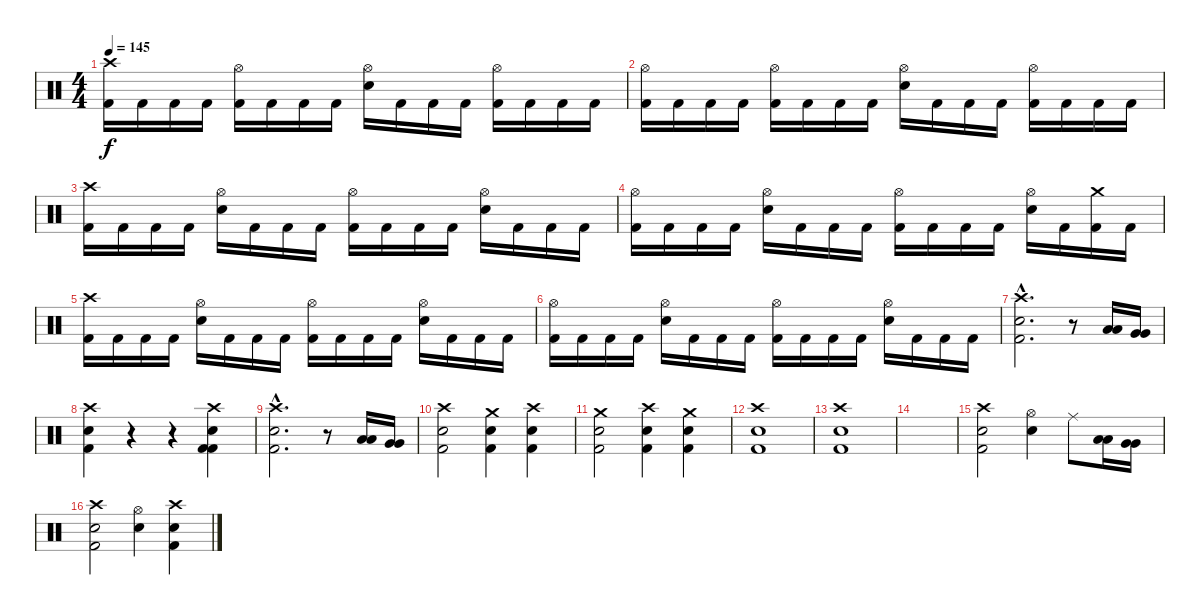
\track "" {instrument percussion}
\staff {score}
\articulation defaults
\ts (4 4)
\tempo 145
\clef neutral
\ks c
("Crash high (hit)" "Kick (hit) 2").16{dy f} "Kick (hit) 2".16 "Kick (hit) 2".16 "Kick (hit) 2".16 ("Hi-Hat (open)" "Kick (hit) 2").16 "Kick (hit) 2".16 "Kick (hit) 2".16 "Kick (hit) 2".16 ("Hi-Hat (open)" "Snare (hit) 2").16 "Kick (hit) 2".16 "Kick (hit) 2".16 "Kick (hit) 2".16 ("Hi-Hat (open)" "Kick (hit) 2").16 "Kick (hit) 2".16 "Kick (hit) 2".16 "Kick (hit) 2".16 |
("Hi-Hat (open)" "Kick (hit) 2").16 "Kick (hit) 2".16 "Kick (hit) 2".16 "Kick (hit) 2".16 ("Hi-Hat (open)" "Kick (hit) 2").16 "Kick (hit) 2".16 "Kick (hit) 2".16 "Kick (hit) 2".16 ("Hi-Hat (open)" "Snare (hit) 2").16 "Kick (hit) 2".16 "Kick (hit) 2".16 "Kick (hit) 2".16 ("Hi-Hat (open)" "Kick (hit) 2").16 "Kick (hit) 2".16 "Kick (hit) 2".16 "Kick (hit) 2".16 |
("Crash high (hit)" "Kick (hit) 2").16 "Kick (hit) 2".16 "Kick (hit) 2".16 "Kick (hit) 2".16 ("Hi-Hat (open)" "Snare (hit) 2").16 "Kick (hit) 2".16 "Kick (hit) 2".16 "Kick (hit) 2".16 ("Hi-Hat (open)" "Kick (hit) 2").16 "Kick (hit) 2".16 "Kick (hit) 2".16 "Kick (hit) 2".16 ("Hi-Hat (open)" "Snare (hit) 2").16 "Kick (hit) 2".16 "Kick (hit) 2".16 "Kick (hit) 2".16 |
("Hi-Hat (open)" "Kick (hit) 2").16 "Kick (hit) 2".16 "Kick (hit) 2".16 "Kick (hit) 2".16 ("Hi-Hat (open)" "Snare (hit) 2").16 "Kick (hit) 2".16 "Kick (hit) 2".16 "Kick (hit) 2".16 ("Hi-Hat (open)" "Kick (hit) 2").16 "Kick (hit) 2".16 "Kick (hit) 2".16 "Kick (hit) 2".16 ("Hi-Hat (open)" "Snare (hit) 2").16 "Kick (hit) 2".16 ("Crash medium (hit)" "Kick (hit) 2").16 "Kick (hit) 2".16 |
("Crash high (hit)" "Kick (hit) 2").16 "Kick (hit) 2".16 "Kick (hit) 2".16 "Kick (hit) 2".16 ("Hi-Hat (open)" "Snare (hit) 2").16 "Kick (hit) 2".16 "Kick (hit) 2".16 "Kick (hit) 2".16 ("Hi-Hat (open)" "Kick (hit) 2").16 "Kick (hit) 2".16 "Kick (hit) 2".16 "Kick (hit) 2".16 ("Hi-Hat (open)" "Snare (hit) 2").16 "Kick (hit) 2".16 "Kick (hit) 2".16 "Kick (hit) 2".16 |
("Hi-Hat (open)" "Kick (hit) 2").16 "Kick (hit) 2".16 "Kick (hit) 2".16 "Kick (hit) 2".16 ("Hi-Hat (open)" "Snare (hit) 2").16 "Kick (hit) 2".16 "Kick (hit) 2".16 "Kick (hit) 2".16 ("Hi-Hat (open)" "Kick (hit) 2").16 "Kick (hit) 2".16 "Kick (hit) 2".16 "Kick (hit) 2".16 ("Hi-Hat (open)" "Snare (hit) 2").16 "Kick (hit) 2".16 "Kick (hit) 2".16 "Kick (hit) 2".16 |
("Crash high (hit)"{hac} "Snare (hit) 2"{hac} "Kick (hit) 2"{hac}).2{d} r.8 ("Low Tom (hit)" "Low Tom (hit)").16 ("Very Low Tom (hit)" "Very Low Tom (hit)").16 |
("Crash high (hit)" "Snare (hit) 2" "Kick (hit) 2").4 r.4 r.4 ("Crash high (hit)" "Snare (hit) 2" "Kick (hit) 2" "Kick (hit) 2").4 |
("Crash high (hit)"{hac} "Snare (hit) 2"{hac} "Kick (hit) 2"{hac}).2{d} r.8 ("Low Tom (hit)" "Low Tom (hit)").16 ("Very Low Tom (hit)" "Very Low Tom (hit)").16 |
("Crash high (hit)" "Snare (hit) 2" "Kick (hit) 2").2 ("Crash medium (hit)" "Snare (hit) 2" "Kick (hit) 2").4 ("Crash high (hit)" "Snare (hit) 2" "Kick (hit) 2").4 |
("Crash medium (hit)" "Snare (hit) 2" "Kick (hit) 2").2 ("Crash high (hit)" "Snare (hit) 2" "Kick (hit) 2").4 ("Crash medium (hit)" "Snare (hit) 2" "Kick (hit) 2").4 |
("Crash high (hit)" "Snare (hit) 2" "Kick (hit) 2").1 |
("Crash high (hit)" "Snare (hit) 2" "Kick (hit) 2").1 |
|
("Crash high (hit)" "Snare (hit) 2" "Kick (hit) 2").2 ("Hi-Hat (open)" "Snare (hit) 2").4 "Ride (middle)".8 ("Low Tom (hit)" "Low Tom (hit)").16 ("Very Low Tom (hit)" "Very Low Tom (hit)").16 |
("Crash high (hit)" "Snare (hit) 2" "Kick (hit) 2").2 ("Hi-Hat (open)" "Snare (hit) 2").4 ("Crash high (hit)" "Snare (hit) 2" "Kick (hit) 2").4
